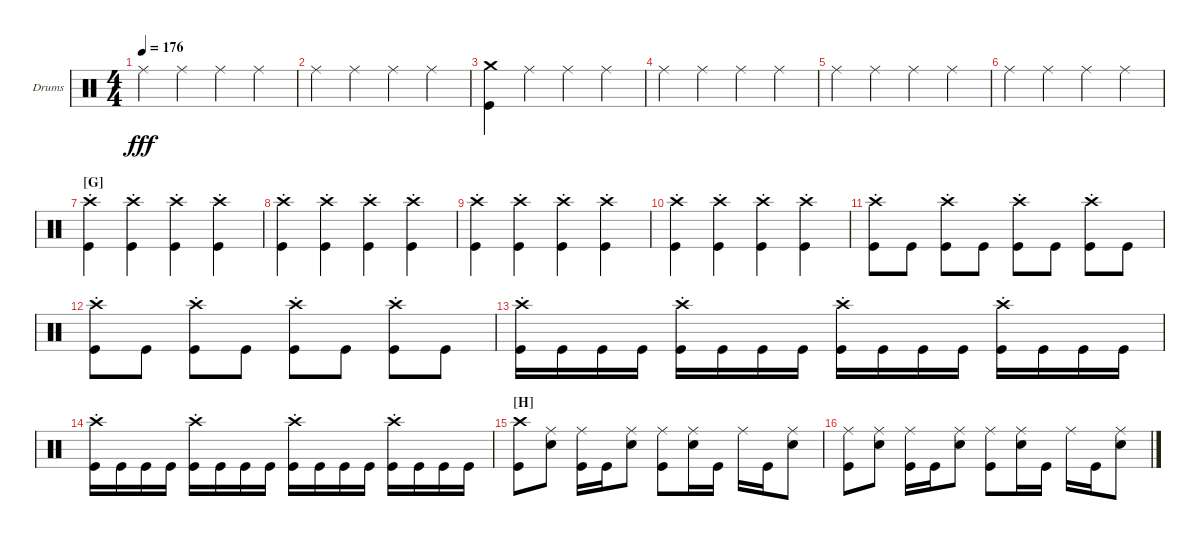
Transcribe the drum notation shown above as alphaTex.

\defaultSystemsLayout 4
\bracketExtendMode groupsimilarinstruments
\firstSystemTrackNameOrientation horizontal
\otherSystemsTrackNameOrientation horizontal
\track ("Drums" "Drums") {instrument percussion}
\staff {score}
\articulation defaults
\ts (4 4)
\tempo 176
\clef neutral
\ks c "Ride (middle)".4{dy fff} "Ride (middle)".4 "Ride (middle)".4 "Ride (middle)".4
|
"Ride (middle)".4 "Ride (middle)".4 "Ride (middle)".4 "Ride (middle)".4 |
("Kick (hit)" "Crash medium (hit)").4 "Ride (middle)".4 "Ride (middle)".4 "Ride (middle)".4 |
"Ride (middle)".4 "Ride (middle)".4 "Ride (middle)".4 "Ride (middle)".4 |
"Ride (middle)".4 "Ride (middle)".4 "Ride (middle)".4 "Ride (middle)".4 |
"Ride (middle)".4 "Ride (middle)".4 "Ride (middle)".4 "Ride (middle)".4 |
\section ("G" "")
("Kick (hit)"{st} "Crash high (hit)"{st}).4 ("Kick (hit)"{st} "Crash high (hit)"{st}).4 ("Kick (hit)"{st} "Crash high (hit)"{st}).4 ("Kick (hit)"{st} "Crash high (hit)"{st}).4 |
("Kick (hit)"{st} "Crash high (hit)"{st}).4 ("Kick (hit)"{st} "Crash high (hit)"{st}).4 ("Kick (hit)"{st} "Crash high (hit)"{st}).4 ("Kick (hit)"{st} "Crash high (hit)"{st}).4 |
("Kick (hit)"{st} "Crash high (hit)"{st}).4 ("Kick (hit)"{st} "Crash high (hit)"{st}).4 ("Kick (hit)"{st} "Crash high (hit)"{st}).4 ("Kick (hit)"{st} "Crash high (hit)"{st}).4 |
("Kick (hit)"{st} "Crash high (hit)"{st}).4 ("Kick (hit)"{st} "Crash high (hit)"{st}).4 ("Kick (hit)"{st} "Crash high (hit)"{st}).4 ("Kick (hit)"{st} "Crash high (hit)"{st}).4 |
("Kick (hit)" "Crash high (hit)"{st}).8 "Kick (hit)".8 ("Kick (hit)" "Crash high (hit)"{st}).8 "Kick (hit)".8 ("Kick (hit)" "Crash high (hit)"{st}).8 "Kick (hit)".8 ("Kick (hit)" "Crash high (hit)"{st}).8 "Kick (hit)".8 |
("Kick (hit)" "Crash high (hit)"{st}).8 "Kick (hit)".8 ("Kick (hit)" "Crash high (hit)"{st}).8 "Kick (hit)".8 ("Kick (hit)" "Crash high (hit)"{st}).8 "Kick (hit)".8 ("Kick (hit)" "Crash high (hit)"{st}).8 "Kick (hit)".8 |
("Kick (hit)" "Crash high (hit)"{st}).16 "Kick (hit)".16 "Kick (hit)".16 "Kick (hit)".16 ("Kick (hit)" "Crash high (hit)"{st}).16 "Kick (hit)".16 "Kick (hit)".16 "Kick (hit)".16 ("Kick (hit)" "Crash high (hit)"{st}).16 "Kick (hit)".16 "Kick (hit)".16 "Kick (hit)".16 ("Kick (hit)" "Crash high (hit)"{st}).16 "Kick (hit)".16 "Kick (hit)".16 "Kick (hit)".16 |
("Kick (hit)" "Crash high (hit)"{st}).16 "Kick (hit)".16 "Kick (hit)".16 "Kick (hit)".16 ("Kick (hit)" "Crash high (hit)"{st}).16 "Kick (hit)".16 "Kick (hit)".16 "Kick (hit)".16 ("Kick (hit)" "Crash high (hit)"{st}).16 "Kick (hit)".16 "Kick (hit)".16 "Kick (hit)".16 ("Kick (hit)" "Crash high (hit)"{st}).16 "Kick (hit)".16 "Kick (hit)".16 "Kick (hit)".16 |
\section ("H" "")
("Crash high (hit)" "Kick (hit)").8 ("Snare (hit) 2" "Ride (middle)").8 ("Kick (hit)" "Ride (middle)").16 "Kick (hit)".16 ("Snare (hit) 2" "Ride (middle)").8 ("Kick (hit)" "Ride (middle)").8 ("Snare (hit) 2" "Ride (middle)").16 "Kick (hit)".16 "Ride (middle)".16 "Kick (hit)".16 ("Snare (hit) 2" "Ride (middle)").8 |
("Kick (hit)" "Ride (middle)").8 ("Snare (hit) 2" "Ride (middle)").8 ("Kick (hit)" "Ride (middle)").16 "Kick (hit)".16 ("Snare (hit) 2" "Ride (middle)").8 ("Kick (hit)" "Ride (middle)").8 ("Snare (hit) 2" "Ride (middle)").16 "Kick (hit)".16 "Ride (middle)".16 "Kick (hit)".16 ("Snare (hit) 2" "Ride (middle)").8
